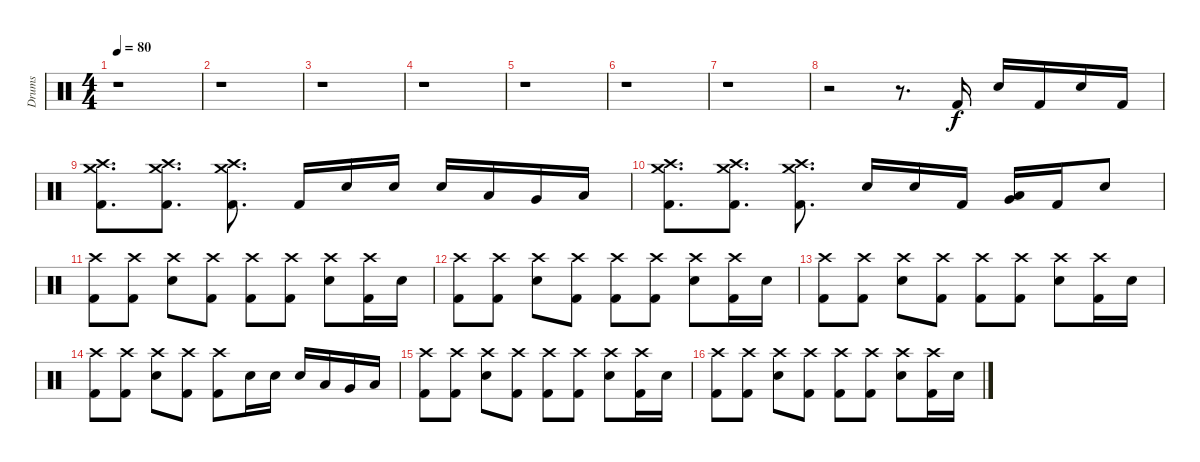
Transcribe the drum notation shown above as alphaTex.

\track ("Drums" "Drums") {instrument percussion}
\staff {score}
\articulation defaults
\ts (4 4)
\tempo 80
\clef neutral
\ks c
r.1{dy f} |
r.1 |
r.1 |
r.1 |
r.1 |
r.1 |
r.1 |
r.2 r.8{d} "Kick (hit) 2".16 "Snare (hit) 2".16 "Kick (hit) 2".16 "Snare (hit) 2".16 "Kick (hit) 2".16 |
("Crash high (hit)" "Crash medium (hit)" "Kick (hit) 2").8{d} ("Crash high (hit)" "Crash medium (hit)" "Kick (hit) 2").8{d} ("Crash high (hit)" "Crash medium (hit)" "Kick (hit) 2").8{d} "Kick (hit) 2".16 "Snare (hit) 2".16 "Snare (hit) 2".16 "Snare (hit) 2".16 "Low Tom (hit)".16 "Very Low Tom (hit)".16 "Low Floor Tom (hit)".16 |
("Crash high (hit)" "Crash medium (hit)" "Kick (hit) 2").8{d} ("Crash high (hit)" "Crash medium (hit)" "Kick (hit) 2").8{d} ("Crash high (hit)" "Crash medium (hit)" "Kick (hit) 2").8{d} "Snare (hit) 2".16 "Snare (hit) 2".16 "Kick (hit) 2".16 ("Low Tom (hit)" "Very Low Tom (hit)").16 "Kick (hit) 2".16 "Snare (hit) 2".8 |
("Crash high (hit)" "Kick (hit) 2").8 ("Crash high (hit)" "Kick (hit) 2").8 ("Crash high (hit)" "Snare (hit) 2").8 ("Crash high (hit)" "Kick (hit) 2").8 ("Crash high (hit)" "Kick (hit) 2").8 ("Crash high (hit)" "Kick (hit) 2").8 ("Crash high (hit)" "Snare (hit) 2").8 ("Crash high (hit)" "Kick (hit) 2").16 "Snare (hit) 2".16 |
("Crash high (hit)" "Kick (hit) 2").8 ("Crash high (hit)" "Kick (hit) 2").8 ("Crash high (hit)" "Snare (hit) 2").8 ("Crash high (hit)" "Kick (hit) 2").8 ("Crash high (hit)" "Kick (hit) 2").8 ("Crash high (hit)" "Kick (hit) 2").8 ("Crash high (hit)" "Snare (hit) 2").8 ("Crash high (hit)" "Kick (hit) 2").16 "Snare (hit) 2".16 |
("Crash high (hit)" "Kick (hit) 2").8 ("Crash high (hit)" "Kick (hit) 2").8 ("Crash high (hit)" "Snare (hit) 2").8 ("Crash high (hit)" "Kick (hit) 2").8 ("Crash high (hit)" "Kick (hit) 2").8 ("Crash high (hit)" "Kick (hit) 2").8 ("Crash high (hit)" "Snare (hit) 2").8 ("Crash high (hit)" "Kick (hit) 2").16 "Snare (hit) 2".16 |
("Crash high (hit)" "Kick (hit) 2").8 ("Crash high (hit)" "Kick (hit) 2").8 ("Crash high (hit)" "Snare (hit) 2").8 ("Crash high (hit)" "Kick (hit) 2").8 ("Crash high (hit)" "Kick (hit) 2").8 "Snare (hit) 2".16 "Snare (hit) 2".16 "Snare (hit) 2".16 "Low Tom (hit)".16 "Very Low Tom (hit)".16 "Low Floor Tom (hit)".16 |
("Crash high (hit)" "Kick (hit) 2").8 ("Crash high (hit)" "Kick (hit) 2").8 ("Crash high (hit)" "Snare (hit) 2").8 ("Crash high (hit)" "Kick (hit) 2").8 ("Crash high (hit)" "Kick (hit) 2").8 ("Crash high (hit)" "Kick (hit) 2").8 ("Crash high (hit)" "Snare (hit) 2").8 ("Crash high (hit)" "Kick (hit) 2").16 "Snare (hit) 2".16 |
("Crash high (hit)" "Kick (hit) 2").8 ("Crash high (hit)" "Kick (hit) 2").8 ("Crash high (hit)" "Snare (hit) 2").8 ("Crash high (hit)" "Kick (hit) 2").8 ("Crash high (hit)" "Kick (hit) 2").8 ("Crash high (hit)" "Kick (hit) 2").8 ("Crash high (hit)" "Snare (hit) 2").8 ("Crash high (hit)" "Kick (hit) 2").16 "Snare (hit) 2".16
